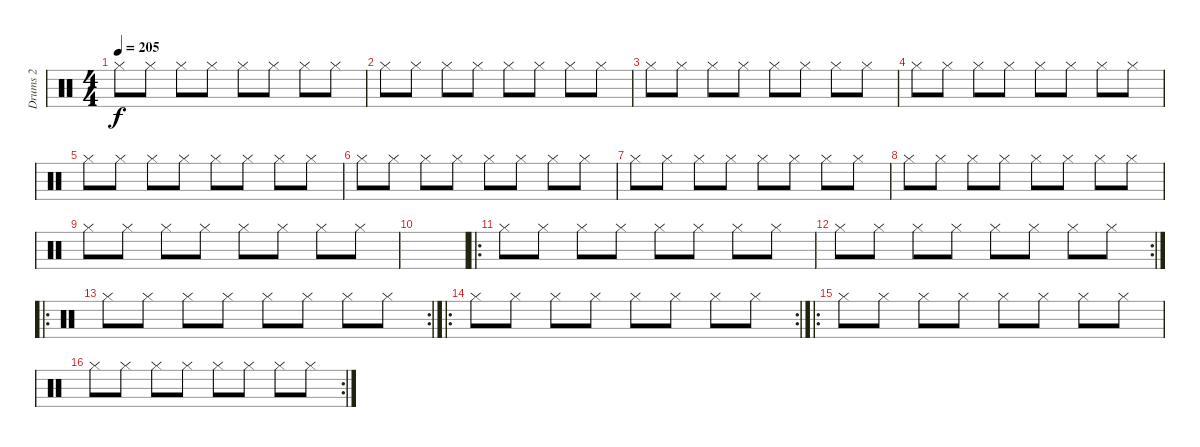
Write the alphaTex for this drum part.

\track ("Drums 2" "Drums 2") {instrument percussion}
\staff {score}
\articulation defaults
\ts (4 4)
\tempo 205
\clef neutral
\ks c "Hi-Hat (closed)".8{dy f} "Hi-Hat (closed)".8 "Hi-Hat (closed)".8 "Hi-Hat (closed)".8 "Hi-Hat (closed)".8 "Hi-Hat (closed)".8 "Hi-Hat (closed)".8 "Hi-Hat (closed)".8
|
"Hi-Hat (closed)".8 "Hi-Hat (closed)".8 "Hi-Hat (closed)".8 "Hi-Hat (closed)".8 "Hi-Hat (closed)".8 "Hi-Hat (closed)".8 "Hi-Hat (closed)".8 "Hi-Hat (closed)".8 |
"Hi-Hat (closed)".8 "Hi-Hat (closed)".8 "Hi-Hat (closed)".8 "Hi-Hat (closed)".8 "Hi-Hat (closed)".8 "Hi-Hat (closed)".8 "Hi-Hat (closed)".8 "Hi-Hat (closed)".8 |
"Hi-Hat (closed)".8 "Hi-Hat (closed)".8 "Hi-Hat (closed)".8 "Hi-Hat (closed)".8 "Hi-Hat (closed)".8 "Hi-Hat (closed)".8 "Hi-Hat (closed)".8 "Hi-Hat (closed)".8 |
"Hi-Hat (closed)".8 "Hi-Hat (closed)".8 "Hi-Hat (closed)".8 "Hi-Hat (closed)".8 "Hi-Hat (closed)".8 "Hi-Hat (closed)".8 "Hi-Hat (closed)".8 "Hi-Hat (closed)".8 |
"Hi-Hat (closed)".8 "Hi-Hat (closed)".8 "Hi-Hat (closed)".8 "Hi-Hat (closed)".8 "Hi-Hat (closed)".8 "Hi-Hat (closed)".8 "Hi-Hat (closed)".8 "Hi-Hat (closed)".8 |
"Hi-Hat (closed)".8 "Hi-Hat (closed)".8 "Hi-Hat (closed)".8 "Hi-Hat (closed)".8 "Hi-Hat (closed)".8 "Hi-Hat (closed)".8 "Hi-Hat (closed)".8 "Hi-Hat (closed)".8 |
"Hi-Hat (closed)".8 "Hi-Hat (closed)".8 "Hi-Hat (closed)".8 "Hi-Hat (closed)".8 "Hi-Hat (closed)".8 "Hi-Hat (closed)".8 "Hi-Hat (closed)".8 "Hi-Hat (closed)".8 |
"Hi-Hat (closed)".8 "Hi-Hat (closed)".8 "Hi-Hat (closed)".8 "Hi-Hat (closed)".8 "Hi-Hat (closed)".8 "Hi-Hat (closed)".8 "Hi-Hat (closed)".8 "Hi-Hat (closed)".8 |
|
\ro "Hi-Hat (closed)".8 "Hi-Hat (closed)".8 "Hi-Hat (closed)".8 "Hi-Hat (closed)".8 "Hi-Hat (closed)".8 "Hi-Hat (closed)".8 "Hi-Hat (closed)".8 "Hi-Hat (closed)".8
|
\rc 2 "Hi-Hat (closed)".8 "Hi-Hat (closed)".8 "Hi-Hat (closed)".8 "Hi-Hat (closed)".8 "Hi-Hat (closed)".8 "Hi-Hat (closed)".8 "Hi-Hat (closed)".8 "Hi-Hat (closed)".8
|
\ro
\rc 2 "Hi-Hat (closed)".8 "Hi-Hat (closed)".8 "Hi-Hat (closed)".8 "Hi-Hat (closed)".8 "Hi-Hat (closed)".8 "Hi-Hat (closed)".8 "Hi-Hat (closed)".8 "Hi-Hat (closed)".8
|
\ro
\rc 2 "Hi-Hat (closed)".8 "Hi-Hat (closed)".8 "Hi-Hat (closed)".8 "Hi-Hat (closed)".8 "Hi-Hat (closed)".8 "Hi-Hat (closed)".8 "Hi-Hat (closed)".8 "Hi-Hat (closed)".8
|
\ro "Hi-Hat (closed)".8 "Hi-Hat (closed)".8 "Hi-Hat (closed)".8 "Hi-Hat (closed)".8 "Hi-Hat (closed)".8 "Hi-Hat (closed)".8 "Hi-Hat (closed)".8 "Hi-Hat (closed)".8
|
\rc 2 "Hi-Hat (closed)".8 "Hi-Hat (closed)".8 "Hi-Hat (closed)".8 "Hi-Hat (closed)".8 "Hi-Hat (closed)".8 "Hi-Hat (closed)".8 "Hi-Hat (closed)".8 "Hi-Hat (closed)".8
